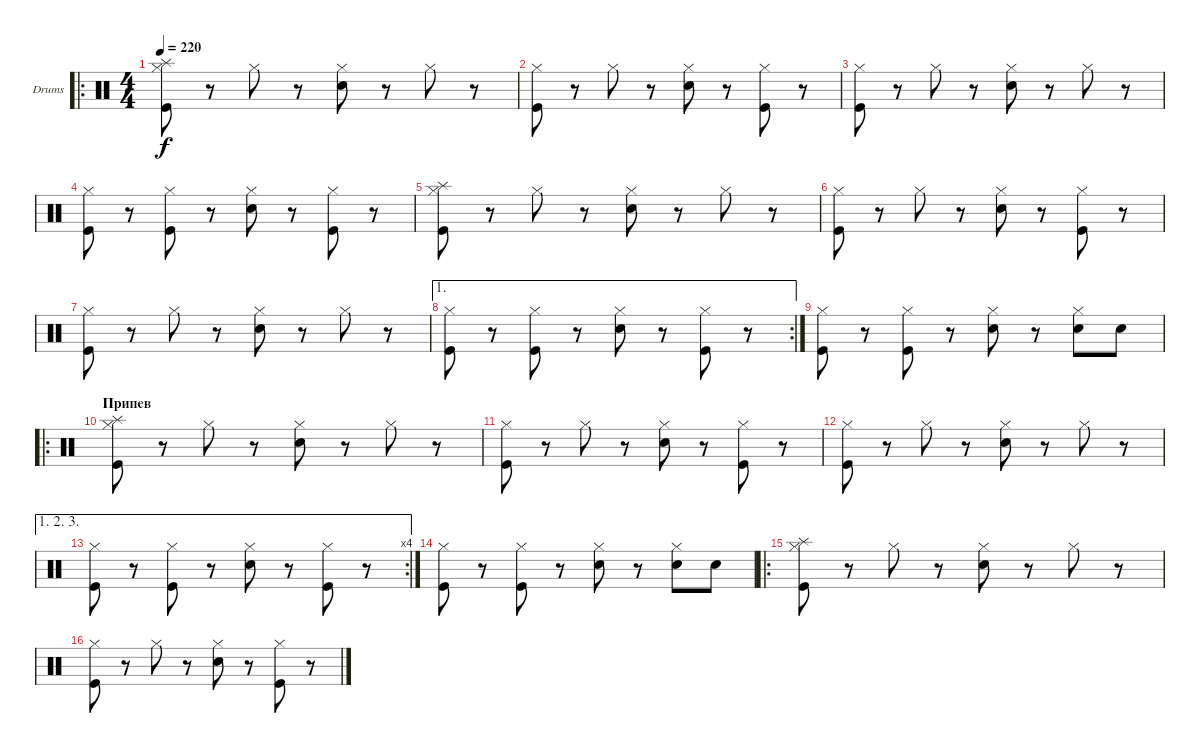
\bracketExtendMode groupsimilarinstruments
\firstSystemTrackNameOrientation horizontal
\otherSystemsTrackNameOrientation horizontal
\track ("Ударные" "Drums") {instrument percussion}
\staff {score}
\articulation defaults
\ro
\ts (4 4)
\tempo 220
\clef neutral
\ks c
("Hi-Hat (closed)" "Splash (hit)" "Kick (hit)").8{dy f} r.8 "Hi-Hat (closed)".8 r.8 ("Hi-Hat (closed)" "Snare (hit) 2").8 r.8 "Hi-Hat (closed)".8 r.8 |
("Hi-Hat (closed)" "Kick (hit)").8 r.8 "Hi-Hat (closed)".8 r.8 ("Hi-Hat (closed)" "Snare (hit) 2").8 r.8 ("Hi-Hat (closed)" "Kick (hit)").8 r.8 |
("Hi-Hat (closed)" "Kick (hit)").8 r.8 "Hi-Hat (closed)".8 r.8 ("Hi-Hat (closed)" "Snare (hit) 2").8 r.8 "Hi-Hat (closed)".8 r.8 |
("Hi-Hat (closed)" "Kick (hit)").8 r.8 ("Hi-Hat (closed)" "Kick (hit)").8 r.8 ("Hi-Hat (closed)" "Snare (hit) 2").8 r.8 ("Hi-Hat (closed)" "Kick (hit)").8 r.8 |
("Hi-Hat (closed)" "Splash (hit)" "Kick (hit)").8 r.8 "Hi-Hat (closed)".8 r.8 ("Hi-Hat (closed)" "Snare (hit) 2").8 r.8 "Hi-Hat (closed)".8 r.8 |
("Hi-Hat (closed)" "Kick (hit)").8 r.8 "Hi-Hat (closed)".8 r.8 ("Hi-Hat (closed)" "Snare (hit) 2").8 r.8 ("Hi-Hat (closed)" "Kick (hit)").8 r.8 |
("Hi-Hat (closed)" "Kick (hit)").8 r.8 "Hi-Hat (closed)".8 r.8 ("Hi-Hat (closed)" "Snare (hit) 2").8 r.8 "Hi-Hat (closed)".8 r.8 |
\ae 1
\rc 2
("Hi-Hat (closed)" "Kick (hit)").8 r.8 ("Hi-Hat (closed)" "Kick (hit)").8 r.8 ("Hi-Hat (closed)" "Snare (hit) 2").8 r.8 ("Hi-Hat (closed)" "Kick (hit)").8 r.8 |
("Hi-Hat (closed)" "Kick (hit)").8 r.8 ("Hi-Hat (closed)" "Kick (hit)").8 r.8 ("Hi-Hat (closed)" "Snare (hit) 2").8 r.8 ("Hi-Hat (closed)" "Snare (hit) 2").8 "Snare (hit) 2".8 |
\ro
\section ("" "Припев")
("Hi-Hat (closed)" "Splash (hit)" "Kick (hit)").8 r.8 "Hi-Hat (closed)".8 r.8 ("Hi-Hat (closed)" "Snare (hit) 2").8 r.8 "Hi-Hat (closed)".8 r.8 |
("Hi-Hat (closed)" "Kick (hit)").8 r.8 "Hi-Hat (closed)".8 r.8 ("Hi-Hat (closed)" "Snare (hit) 2").8 r.8 ("Hi-Hat (closed)" "Kick (hit)").8 r.8 |
("Hi-Hat (closed)" "Kick (hit)").8 r.8 "Hi-Hat (closed)".8 r.8 ("Hi-Hat (closed)" "Snare (hit) 2").8 r.8 "Hi-Hat (closed)".8 r.8 |
\ae (1 2 3)
\rc 4
("Hi-Hat (closed)" "Kick (hit)").8 r.8 ("Hi-Hat (closed)" "Kick (hit)").8 r.8 ("Hi-Hat (closed)" "Snare (hit) 2").8 r.8 ("Hi-Hat (closed)" "Kick (hit)").8 r.8 |
("Hi-Hat (closed)" "Kick (hit)").8 r.8 ("Hi-Hat (closed)" "Kick (hit)").8 r.8 ("Hi-Hat (closed)" "Snare (hit) 2").8 r.8 ("Hi-Hat (closed)" "Snare (hit) 2").8 "Snare (hit) 2".8 |
\ro
("Hi-Hat (closed)" "Splash (hit)" "Kick (hit)").8 r.8 "Hi-Hat (closed)".8 r.8 ("Hi-Hat (closed)" "Snare (hit) 2").8 r.8 "Hi-Hat (closed)".8 r.8 |
("Hi-Hat (closed)" "Kick (hit)").8 r.8 "Hi-Hat (closed)".8 r.8 ("Hi-Hat (closed)" "Snare (hit) 2").8 r.8 ("Hi-Hat (closed)" "Kick (hit)").8 r.8
